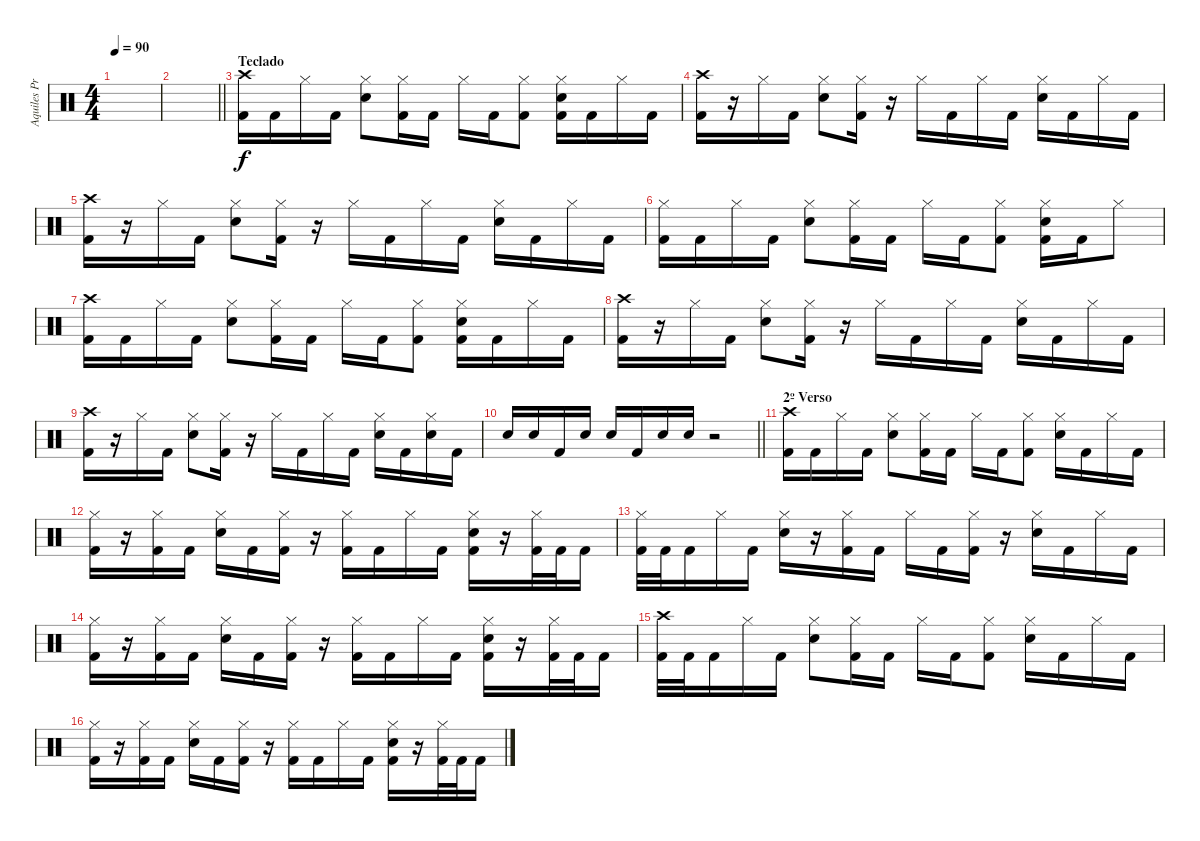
\track ("Aquiles Priester" "Aquiles Pr") {instrument percussion}
\staff {score}
\articulation defaults
\ts (4 4)
\tempo 90
\clef neutral
\ks c
|
\barLineRight lightlight
|
\section ("" "Teclado")
("Crash high (hit)" "Kick (hit) 2").16 "Kick (hit) 2".16 "Hi-Hat (closed)".16 "Kick (hit) 2".16 ("Hi-Hat (closed)" "Electric Snare (hit)").8 ("Hi-Hat (closed)" "Kick (hit) 2").16 "Kick (hit) 2".16 "Hi-Hat (closed)".16 "Kick (hit) 2".16 ("Hi-Hat (closed)" "Kick (hit) 2").8 ("Hi-Hat (closed)" "Electric Snare (hit)" "Kick (hit) 2").16 "Kick (hit) 2".16 "Hi-Hat (closed)".16 "Kick (hit) 2".16 |
("Crash high (hit)" "Kick (hit) 2").16 r.16 "Hi-Hat (closed)".16 "Kick (hit) 2".16 ("Hi-Hat (closed)" "Electric Snare (hit)").8 ("Hi-Hat (closed)" "Kick (hit) 2").16 r.16 "Hi-Hat (closed)".16 "Kick (hit) 2".16 "Hi-Hat (closed)".16 "Kick (hit) 2".16 ("Hi-Hat (closed)" "Electric Snare (hit)").16 "Kick (hit) 2".16 "Hi-Hat (closed)".16 "Kick (hit) 2".16 |
("Crash high (hit)" "Kick (hit) 2").16 r.16 "Hi-Hat (closed)".16 "Kick (hit) 2".16 ("Hi-Hat (closed)" "Electric Snare (hit)").8 ("Hi-Hat (closed)" "Kick (hit) 2").16 r.16 "Hi-Hat (closed)".16 "Kick (hit) 2".16 "Hi-Hat (closed)".16 "Kick (hit) 2".16 ("Hi-Hat (closed)" "Electric Snare (hit)").16 "Kick (hit) 2".16 "Hi-Hat (closed)".16 "Kick (hit) 2".16 |
("Hi-Hat (closed)" "Kick (hit) 2").16 "Kick (hit) 2".16 "Hi-Hat (closed)".16 "Kick (hit) 2".16 ("Hi-Hat (closed)" "Electric Snare (hit)").8 ("Hi-Hat (closed)" "Kick (hit) 2").16 "Kick (hit) 2".16 "Hi-Hat (closed)".16 "Kick (hit) 2".16 ("Hi-Hat (closed)" "Kick (hit) 2").8 ("Hi-Hat (closed)" "Electric Snare (hit)" "Kick (hit) 2").16 "Kick (hit) 2".16 "Hi-Hat (closed)".8 |
("Crash high (hit)" "Kick (hit) 2").16 "Kick (hit) 2".16 "Hi-Hat (closed)".16 "Kick (hit) 2".16 ("Hi-Hat (closed)" "Electric Snare (hit)").8 ("Hi-Hat (closed)" "Kick (hit) 2").16 "Kick (hit) 2".16 "Hi-Hat (closed)".16 "Kick (hit) 2".16 ("Hi-Hat (closed)" "Kick (hit) 2").8 ("Hi-Hat (closed)" "Electric Snare (hit)" "Kick (hit) 2").16 "Kick (hit) 2".16 "Hi-Hat (closed)".16 "Kick (hit) 2".16 |
("Crash high (hit)" "Kick (hit) 2").16 r.16 "Hi-Hat (closed)".16 "Kick (hit) 2".16 ("Hi-Hat (closed)" "Electric Snare (hit)").8 ("Hi-Hat (closed)" "Kick (hit) 2").16 r.16 "Hi-Hat (closed)".16 "Kick (hit) 2".16 "Hi-Hat (closed)".16 "Kick (hit) 2".16 ("Hi-Hat (closed)" "Electric Snare (hit)").16 "Kick (hit) 2".16 "Hi-Hat (closed)".16 "Kick (hit) 2".16 |
("Crash high (hit)" "Kick (hit) 2").16 r.16 "Hi-Hat (closed)".16 "Kick (hit) 2".16 ("Hi-Hat (closed)" "Electric Snare (hit)").8 ("Hi-Hat (closed)" "Kick (hit) 2").16 r.16 "Hi-Hat (closed)".16 "Kick (hit) 2".16 "Hi-Hat (closed)".16 "Kick (hit) 2".16 ("Hi-Hat (closed)" "Electric Snare (hit)").16 "Kick (hit) 2".16 ("Hi-Hat (closed)" "Electric Snare (hit)").16 "Kick (hit) 2".16 |
\barLineRight lightlight "Electric Snare (hit)".16 "Electric Snare (hit)".16 "Kick (hit) 2".16 "Electric Snare (hit)".16 "Electric Snare (hit)".16 "Kick (hit) 2".16 "Electric Snare (hit)".16 "Electric Snare (hit)".16
r.2 |
\section ("" "2º Verso")
("Crash high (hit)" "Kick (hit) 2").16 "Kick (hit) 2".16 "Hi-Hat (closed)".16 "Kick (hit) 2".16 ("Hi-Hat (closed)" "Electric Snare (hit)").8 ("Hi-Hat (closed)" "Kick (hit) 2").16 "Kick (hit) 2".16 "Hi-Hat (closed)".16 "Kick (hit) 2".16 ("Hi-Hat (closed)" "Kick (hit) 2").8 ("Hi-Hat (closed)" "Electric Snare (hit)").16 "Kick (hit) 2".16 "Hi-Hat (closed)".16 "Kick (hit) 2".16 |
("Hi-Hat (closed)" "Kick (hit) 2").16 r.16 ("Hi-Hat (closed)" "Kick (hit) 2").16 "Kick (hit) 2".16 ("Hi-Hat (closed)" "Electric Snare (hit)").16 "Kick (hit) 2".16 ("Hi-Hat (closed)" "Kick (hit) 2").16 r.16 ("Hi-Hat (closed)" "Kick (hit) 2").16 "Kick (hit) 2".16 "Hi-Hat (closed)".16 "Kick (hit) 2".16 ("Hi-Hat (closed)" "Electric Snare (hit)" "Kick (hit) 2").16 r.16 ("Hi-Hat (closed)" "Kick (hit) 2").32 "Kick (hit) 2".32 "Kick (hit) 2".16 |
("Hi-Hat (closed)" "Kick (hit) 2").32 "Kick (hit) 2".32 "Kick (hit) 2".16 "Hi-Hat (closed)".16 "Kick (hit) 2".16 ("Hi-Hat (closed)" "Electric Snare (hit)").16 r.16 ("Hi-Hat (closed)" "Kick (hit) 2").16 "Kick (hit) 2".16 "Hi-Hat (closed)".16 "Kick (hit) 2".16 ("Hi-Hat (closed)" "Kick (hit) 2").16 r.16 ("Hi-Hat (closed)" "Electric Snare (hit)").16 "Kick (hit) 2".16 "Hi-Hat (closed)".16 "Kick (hit) 2".16 |
("Hi-Hat (closed)" "Kick (hit) 2").16 r.16 ("Hi-Hat (closed)" "Kick (hit) 2").16 "Kick (hit) 2".16 ("Hi-Hat (closed)" "Electric Snare (hit)").16 "Kick (hit) 2".16 ("Hi-Hat (closed)" "Kick (hit) 2").16 r.16 ("Hi-Hat (closed)" "Kick (hit) 2").16 "Kick (hit) 2".16 "Hi-Hat (closed)".16 "Kick (hit) 2".16 ("Hi-Hat (closed)" "Electric Snare (hit)" "Kick (hit) 2").16 r.16 ("Hi-Hat (closed)" "Kick (hit) 2").32 "Kick (hit) 2".32 "Kick (hit) 2".16 |
("Crash high (hit)" "Kick (hit) 2").32 "Kick (hit) 2".32 "Kick (hit) 2".16 "Hi-Hat (closed)".16 "Kick (hit) 2".16 ("Hi-Hat (closed)" "Electric Snare (hit)").8 ("Hi-Hat (closed)" "Kick (hit) 2").16 "Kick (hit) 2".16 "Hi-Hat (closed)".16 "Kick (hit) 2".16 ("Hi-Hat (closed)" "Kick (hit) 2").8 ("Hi-Hat (closed)" "Electric Snare (hit)").16 "Kick (hit) 2".16 "Hi-Hat (closed)".16 "Kick (hit) 2".16 |
("Hi-Hat (closed)" "Kick (hit) 2").16 r.16 ("Hi-Hat (closed)" "Kick (hit) 2").16 "Kick (hit) 2".16 ("Hi-Hat (closed)" "Electric Snare (hit)").16 "Kick (hit) 2".16 ("Hi-Hat (closed)" "Kick (hit) 2").16 r.16 ("Hi-Hat (closed)" "Kick (hit) 2").16 "Kick (hit) 2".16 "Hi-Hat (closed)".16 "Kick (hit) 2".16 ("Hi-Hat (closed)" "Electric Snare (hit)" "Kick (hit) 2").16 r.16 ("Hi-Hat (closed)" "Kick (hit) 2").32 "Kick (hit) 2".32 "Kick (hit) 2".16
